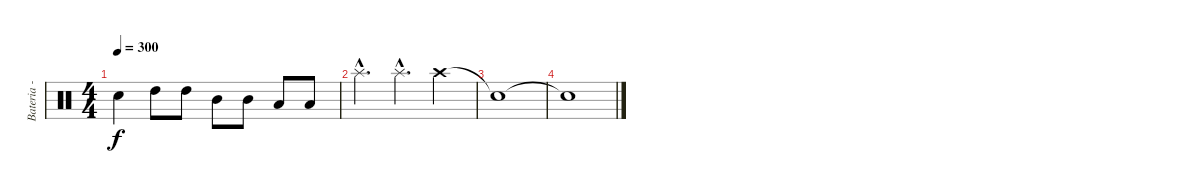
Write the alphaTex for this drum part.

\track ("Bateria - Larzon" "Bateria - ") {instrument percussion}
\staff {score}
\articulation defaults
\ts (4 4)
\tempo 300
\clef neutral
\ks c "Snare (hit)"{t}.4{dy f} "High Tom (hit)".8 "High Tom (hit)".8 "Mid Tom (hit)".8 "Mid Tom (hit)".8 "Low Tom (hit)".8 "Low Tom (hit)".8
|
"Splash (hit)"{hac}.4{d} "Splash (hit)"{hac}.4{d} "Crash high (hit)".4 |
"Snare (hit)"{t}.1 |
"Snare (hit)"{t}.1
